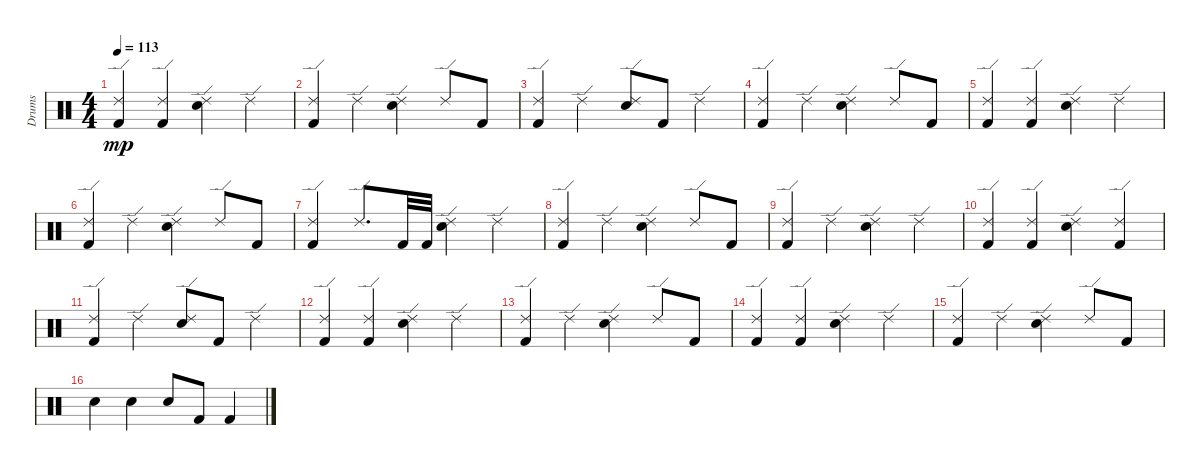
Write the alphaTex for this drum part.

\track ("Drums" "Drums") {instrument percussion}
\staff {score}
\articulation defaults
\ts (4 4)
\tempo 113
\clef neutral
\ks c
("Kick (hit) 2" "Ride (edge) 2").4{dy mp} ("Kick (hit) 2" "Ride (edge) 2").4 ("Snare (hit) 2" "Ride (edge) 2").4 "Ride (edge) 2".4 |
("Kick (hit) 2" "Ride (edge) 2").4 "Ride (edge) 2".4 ("Snare (hit) 2" "Ride (edge) 2").4 "Ride (edge) 2".8 "Kick (hit) 2".8 |
("Kick (hit) 2" "Ride (edge) 2").4 "Ride (edge) 2".4 ("Snare (hit) 2" "Ride (edge) 2").8 "Kick (hit) 2".8 "Ride (edge) 2".4 |
("Kick (hit) 2" "Ride (edge) 2").4 "Ride (edge) 2".4 ("Snare (hit) 2" "Ride (edge) 2").4 "Ride (edge) 2".8 "Kick (hit) 2".8 |
("Kick (hit) 2" "Ride (edge) 2").4 ("Kick (hit) 2" "Ride (edge) 2").4 ("Snare (hit) 2" "Ride (edge) 2").4 "Ride (edge) 2".4 |
("Kick (hit) 2" "Ride (edge) 2").4 "Ride (edge) 2".4 ("Snare (hit) 2" "Ride (edge) 2").4 "Ride (edge) 2".8 "Kick (hit) 2".8 |
("Kick (hit) 2" "Ride (edge) 2").4 "Ride (edge) 2".8{d} "Kick (hit) 2".32 "Kick (hit) 2".32 ("Snare (hit) 2" "Ride (edge) 2").4 "Ride (edge) 2".4 |
("Kick (hit) 2" "Ride (edge) 2").4 "Ride (edge) 2".4 ("Snare (hit) 2" "Ride (edge) 2").4 "Ride (edge) 2".8 "Kick (hit) 2".8 |
("Kick (hit) 2" "Ride (edge) 2").4 "Ride (edge) 2".4 ("Snare (hit) 2" "Ride (edge) 2").4 "Ride (edge) 2".4 |
("Kick (hit) 2" "Ride (edge) 2").4 ("Kick (hit) 2" "Ride (edge) 2").4 ("Snare (hit) 2" "Ride (edge) 2").4 ("Kick (hit) 2" "Ride (edge) 2").4 |
("Kick (hit) 2" "Ride (edge) 2").4 "Ride (edge) 2".4 ("Snare (hit) 2" "Ride (edge) 2").8 "Kick (hit) 2".8 "Ride (edge) 2".4 |
("Kick (hit) 2" "Ride (edge) 2").4 ("Kick (hit) 2" "Ride (edge) 2").4 ("Snare (hit) 2" "Ride (edge) 2").4 "Ride (edge) 2".4 |
("Kick (hit) 2" "Ride (edge) 2").4 "Ride (edge) 2".4 ("Snare (hit) 2" "Ride (edge) 2").4 "Ride (edge) 2".8 "Kick (hit) 2".8 |
("Kick (hit) 2" "Ride (edge) 2").4 ("Kick (hit) 2" "Ride (edge) 2").4 ("Snare (hit) 2" "Ride (edge) 2").4 "Ride (edge) 2".4 |
("Kick (hit) 2" "Ride (edge) 2").4 "Ride (edge) 2".4 ("Snare (hit) 2" "Ride (edge) 2").4 "Ride (edge) 2".8 "Kick (hit) 2".8 |
"Snare (hit) 2".4 "Snare (hit) 2".4 "Snare (hit) 2".8 "Kick (hit) 2".8 "Kick (hit) 2".4
